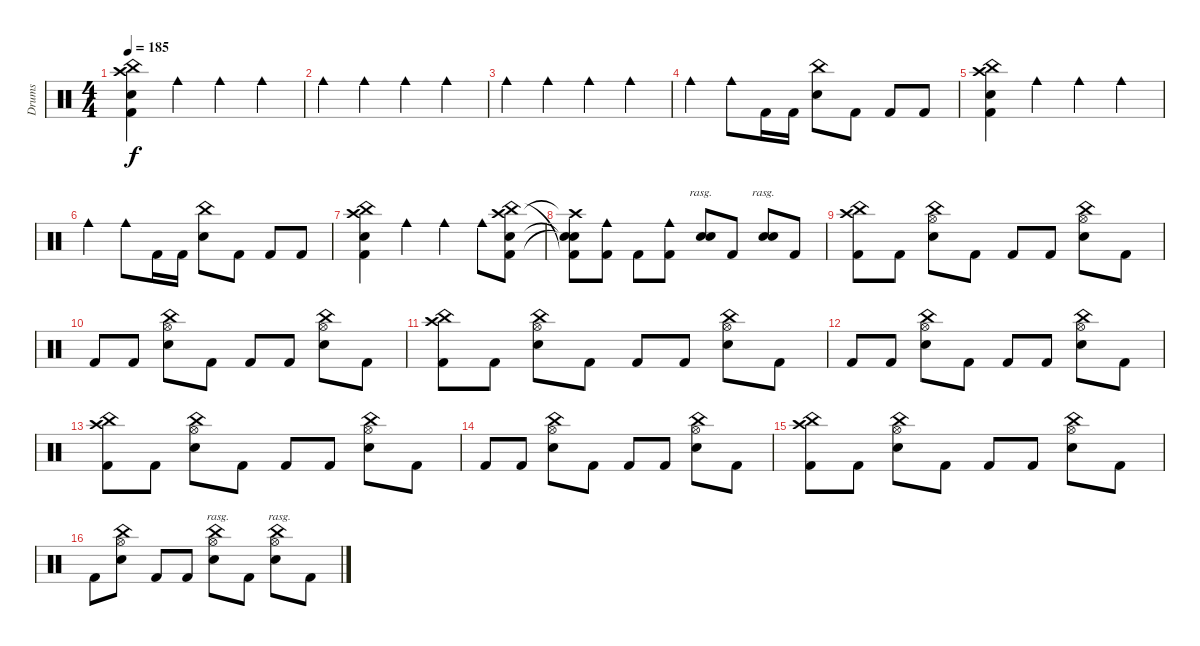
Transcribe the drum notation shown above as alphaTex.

\track ("Drums" "Drums") {instrument percussion}
\staff {score}
\articulation defaults
\ts (4 4)
\tempo 185
\clef neutral
\ks c
("Crash high (hit)" "China (hit)" "Kick (hit) 2" "Snare (hit) 2").4{dy f} "Cowbell medium (hit)".4 "Cowbell medium (hit)".4 "Cowbell medium (hit)".4 |
"Cowbell medium (hit)".4 "Cowbell medium (hit)".4 "Cowbell medium (hit)".4 "Cowbell medium (hit)".4 |
"Cowbell medium (hit)".4 "Cowbell medium (hit)".4 "Cowbell medium (hit)".4 "Cowbell medium (hit)".4 |
"Cowbell medium (hit)".4 "Cowbell medium (hit)".8 "Kick (hit) 2".16 "Kick (hit) 2".16 ("China (hit)" "Snare (hit) 2").8 "Kick (hit) 2".8 "Kick (hit) 2".8 "Kick (hit) 2".8 |
("Crash high (hit)" "China (hit)" "Kick (hit) 2" "Snare (hit) 2").4 "Cowbell medium (hit)".4 "Cowbell medium (hit)".4 "Cowbell medium (hit)".4 |
"Cowbell medium (hit)".4 "Cowbell medium (hit)".8 "Kick (hit) 2".16 "Kick (hit) 2".16 ("China (hit)" "Snare (hit) 2").8 "Kick (hit) 2".8 "Kick (hit) 2".8 "Kick (hit) 2".8 |
("Crash high (hit)" "China (hit)" "Kick (hit) 2" "Snare (hit) 2").4 "Cowbell medium (hit)".4 "Cowbell medium (hit)".4 "Cowbell medium (hit)".8 ("Crash high (hit)" "China (hit)" "Snare (hit) 2" "Kick (hit) 2").8 |
("Crash high (hit)"{t} "Kick (hit) 2"{t} "Snare (hit) 2"{t} "Snare (hit)"{t}).8 ("Cowbell medium (hit)" "Kick (hit) 2").8 "Kick (hit) 2".8 ("Cowbell medium (hit)" "Kick (hit) 2").8 ("Snare (hit) 2" "Snare (hit) 2").8{bu 120 rasg ii} "Kick (hit) 2".8 ("Snare (hit) 2" "Snare (hit) 2").8{bu 120 rasg ii} "Kick (hit) 2".8 |
("Crash high (hit)" "China (hit)" "Kick (hit) 2").8 "Kick (hit) 2".8 ("China (hit)" "Hi-Hat (open)" "Snare (hit) 2").8 "Kick (hit) 2".8 "Kick (hit) 2".8 "Kick (hit) 2".8 ("China (hit)" "Hi-Hat (open)" "Snare (hit) 2").8 "Kick (hit) 2".8 |
"Kick (hit) 2".8 "Kick (hit) 2".8 ("China (hit)" "Hi-Hat (open)" "Snare (hit) 2").8 "Kick (hit) 2".8 "Kick (hit) 2".8 "Kick (hit) 2".8 ("China (hit)" "Hi-Hat (open)" "Snare (hit) 2").8 "Kick (hit) 2".8 |
("Crash high (hit)" "China (hit)" "Kick (hit) 2").8 "Kick (hit) 2".8 ("China (hit)" "Hi-Hat (open)" "Snare (hit) 2").8 "Kick (hit) 2".8 "Kick (hit) 2".8 "Kick (hit) 2".8 ("China (hit)" "Hi-Hat (open)" "Snare (hit) 2").8 "Kick (hit) 2".8 |
"Kick (hit) 2".8 "Kick (hit) 2".8 ("China (hit)" "Hi-Hat (open)" "Snare (hit) 2").8 "Kick (hit) 2".8 "Kick (hit) 2".8 "Kick (hit) 2".8 ("China (hit)" "Hi-Hat (open)" "Snare (hit) 2").8 "Kick (hit) 2".8 |
("Crash high (hit)" "China (hit)" "Kick (hit) 2").8 "Kick (hit) 2".8 ("China (hit)" "Hi-Hat (open)" "Snare (hit) 2").8 "Kick (hit) 2".8 "Kick (hit) 2".8 "Kick (hit) 2".8 ("China (hit)" "Hi-Hat (open)" "Snare (hit) 2").8 "Kick (hit) 2".8 |
"Kick (hit) 2".8 "Kick (hit) 2".8 ("China (hit)" "Hi-Hat (open)" "Snare (hit) 2").8 "Kick (hit) 2".8 "Kick (hit) 2".8 "Kick (hit) 2".8 ("China (hit)" "Hi-Hat (open)" "Snare (hit) 2").8 "Kick (hit) 2".8 |
("Crash high (hit)" "China (hit)" "Kick (hit) 2").8 "Kick (hit) 2".8 ("China (hit)" "Hi-Hat (open)" "Snare (hit) 2").8 "Kick (hit) 2".8 "Kick (hit) 2".8 "Kick (hit) 2".8 ("China (hit)" "Hi-Hat (open)" "Snare (hit) 2").8 "Kick (hit) 2".8 |
"Kick (hit) 2".8 ("China (hit)" "Hi-Hat (open)" "Snare (hit) 2").8 "Kick (hit) 2".8 "Kick (hit) 2".8 ("China (hit)" "Hi-Hat (open)" "Snare (hit) 2").8{bd 120 rasg ii} "Kick (hit) 2".8 ("China (hit)" "Hi-Hat (open)" "Snare (hit) 2").8{bd 120 rasg ii} "Kick (hit) 2".8
